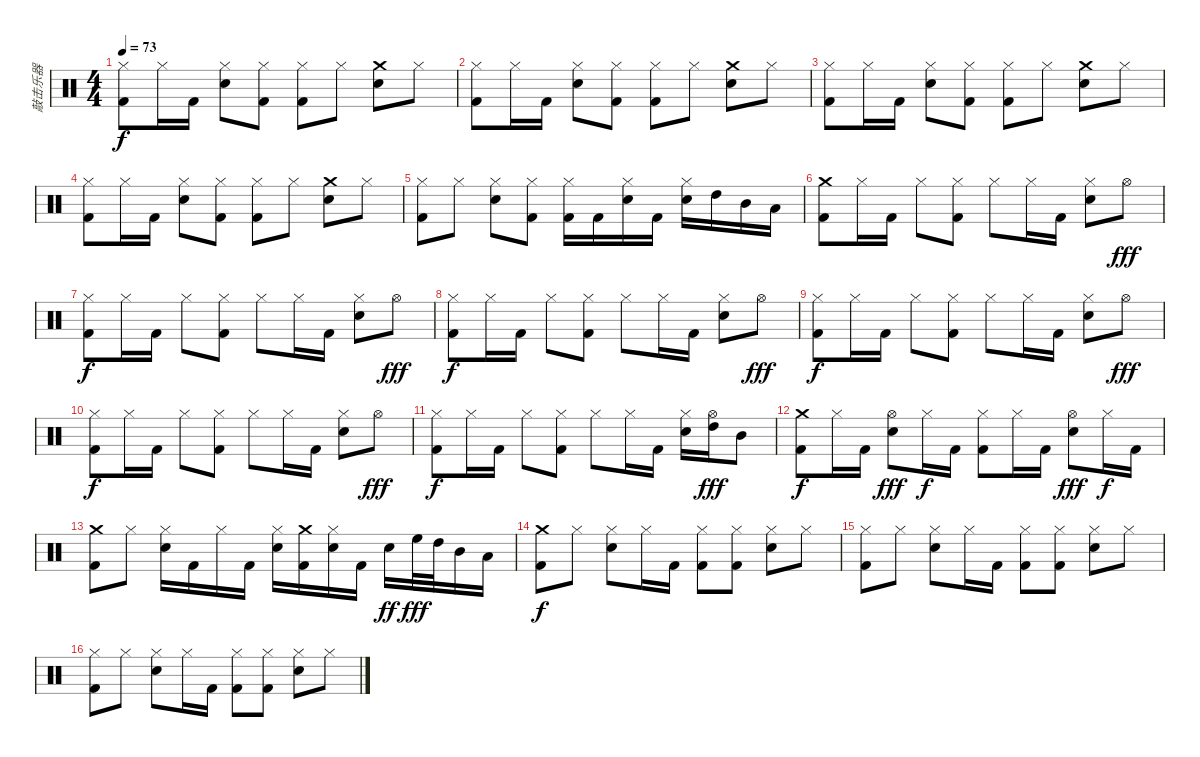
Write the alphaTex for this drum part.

\track ("敲击乐器" "敲击乐器") {instrument percussion}
\staff {score}
\articulation defaults
\ts (4 4)
\tempo 73
\clef neutral
\ks c
("Hi-Hat (closed)" "Kick (hit) 2").8{dy f} "Hi-Hat (closed)".16 "Kick (hit) 2".16 ("Hi-Hat (closed)" "Electric Snare (hit)").8 ("Hi-Hat (closed)" "Kick (hit) 2").8 ("Hi-Hat (closed)" "Kick (hit) 2").8 "Hi-Hat (closed)".8 ("Crash medium (hit)" "Electric Snare (hit)").8 "Hi-Hat (closed)".8 |
("Hi-Hat (closed)" "Kick (hit) 2").8 "Hi-Hat (closed)".16 "Kick (hit) 2".16 ("Hi-Hat (closed)" "Electric Snare (hit)").8 ("Hi-Hat (closed)" "Kick (hit) 2").8 ("Hi-Hat (closed)" "Kick (hit) 2").8 "Hi-Hat (closed)".8 ("Crash medium (hit)" "Electric Snare (hit)").8 "Hi-Hat (closed)".8 |
("Hi-Hat (closed)" "Kick (hit) 2").8 "Hi-Hat (closed)".16 "Kick (hit) 2".16 ("Hi-Hat (closed)" "Electric Snare (hit)").8 ("Hi-Hat (closed)" "Kick (hit) 2").8 ("Hi-Hat (closed)" "Kick (hit) 2").8 "Hi-Hat (closed)".8 ("Crash medium (hit)" "Electric Snare (hit)").8 "Hi-Hat (closed)".8 |
("Hi-Hat (closed)" "Kick (hit) 2").8 "Hi-Hat (closed)".16 "Kick (hit) 2".16 ("Hi-Hat (closed)" "Electric Snare (hit)").8 ("Hi-Hat (closed)" "Kick (hit) 2").8 ("Hi-Hat (closed)" "Kick (hit) 2").8 "Hi-Hat (closed)".8 ("Crash medium (hit)" "Electric Snare (hit)").8 "Hi-Hat (closed)".8 |
("Hi-Hat (closed)" "Kick (hit) 2").8 "Hi-Hat (closed)".8 ("Hi-Hat (closed)" "Electric Snare (hit)").8 ("Hi-Hat (closed)" "Kick (hit) 2").8 ("Hi-Hat (closed)" "Kick (hit) 2").16 "Kick (hit) 2".16 ("Hi-Hat (closed)" "Electric Snare (hit)").16 "Kick (hit) 2".16 ("Hi-Hat (closed)" "Electric Snare (hit)").16 "High Tom (hit)".16 "Mid Tom (hit)".16 "Low Tom (hit)".16 |
("Crash medium (hit)" "Kick (hit) 2").8 "Hi-Hat (closed)".16 "Kick (hit) 2".16 "Hi-Hat (closed)".8 ("Hi-Hat (closed)" "Kick (hit) 2").8 "Hi-Hat (closed)".8 "Hi-Hat (closed)".16 "Kick (hit) 2".16 ("Hi-Hat (closed)" "Electric Snare (hit)").8 "Hi-Hat (open)".8{dy fff} |
("Hi-Hat (closed)" "Kick (hit) 2").8{dy f} "Hi-Hat (closed)".16 "Kick (hit) 2".16 "Hi-Hat (closed)".8 ("Hi-Hat (closed)" "Kick (hit) 2").8 "Hi-Hat (closed)".8 "Hi-Hat (closed)".16 "Kick (hit) 2".16 ("Hi-Hat (closed)" "Electric Snare (hit)").8 "Hi-Hat (open)".8{dy fff} |
("Hi-Hat (closed)" "Kick (hit) 2").8{dy f} "Hi-Hat (closed)".16 "Kick (hit) 2".16 "Hi-Hat (closed)".8 ("Hi-Hat (closed)" "Kick (hit) 2").8 "Hi-Hat (closed)".8 "Hi-Hat (closed)".16 "Kick (hit) 2".16 ("Hi-Hat (closed)" "Electric Snare (hit)").8 "Hi-Hat (open)".8{dy fff} |
("Hi-Hat (closed)" "Kick (hit) 2").8{dy f} "Hi-Hat (closed)".16 "Kick (hit) 2".16 "Hi-Hat (closed)".8 ("Hi-Hat (closed)" "Kick (hit) 2").8 "Hi-Hat (closed)".8 "Hi-Hat (closed)".16 "Kick (hit) 2".16 ("Hi-Hat (closed)" "Electric Snare (hit)").8 "Hi-Hat (open)".8{dy fff} |
("Hi-Hat (closed)" "Kick (hit) 2").8{dy f} "Hi-Hat (closed)".16 "Kick (hit) 2".16 "Hi-Hat (closed)".8 ("Hi-Hat (closed)" "Kick (hit) 2").8 "Hi-Hat (closed)".8 "Hi-Hat (closed)".16 "Kick (hit) 2".16 ("Hi-Hat (closed)" "Electric Snare (hit)").8 "Hi-Hat (open)".8{dy fff} |
("Hi-Hat (closed)" "Kick (hit) 2").8{dy f} "Hi-Hat (closed)".16 "Kick (hit) 2".16 "Hi-Hat (closed)".8 ("Hi-Hat (closed)" "Kick (hit) 2").8 "Hi-Hat (closed)".8 "Hi-Hat (closed)".16 "Kick (hit) 2".16 ("Hi-Hat (closed)" "Electric Snare (hit)").16 ("Hi-Hat (open)" "High Tom (hit)").16{dy fff} "Mid Tom (hit)".8 |
("Crash medium (hit)" "Kick (hit) 2").8{dy f} "Hi-Hat (closed)".16 "Kick (hit) 2".16 ("Hi-Hat (open)" "Electric Snare (hit)").8{dy fff} "Hi-Hat (closed)".16{dy f} "Kick (hit) 2".16 ("Hi-Hat (closed)" "Kick (hit) 2").8 "Hi-Hat (closed)".16 "Kick (hit) 2".16 ("Hi-Hat (open)" "Electric Snare (hit)").8{dy fff} "Hi-Hat (closed)".16{dy f} "Kick (hit) 2".16 |
("Crash medium (hit)" "Kick (hit) 2").8 "Hi-Hat (closed)".8 ("Hi-Hat (closed)" "Electric Snare (hit)").16 "Kick (hit) 2".16 "Hi-Hat (closed)".16 "Kick (hit) 2".16 ("Hi-Hat (closed)" "Electric Snare (hit)").16 ("Crash medium (hit)" "Kick (hit) 2").16 ("Hi-Hat (closed)" "Electric Snare (hit)").16 "Kick (hit) 2".16 "Electric Snare (hit)".16{dy ff} "High Floor Tom (hit)".32{dy fff} "High Tom (hit)".32 "Mid Tom (hit)".16 "Low Tom (hit)".16 |
("Crash medium (hit)" "Kick (hit) 2").8{dy f} "Hi-Hat (closed)".8 ("Hi-Hat (closed)" "Electric Snare (hit)").8 "Hi-Hat (closed)".16 "Kick (hit) 2".16 ("Hi-Hat (closed)" "Kick (hit) 2").8 ("Hi-Hat (closed)" "Kick (hit) 2").8 ("Hi-Hat (closed)" "Electric Snare (hit)").8 "Hi-Hat (closed)".8 |
("Hi-Hat (closed)" "Kick (hit) 2").8 "Hi-Hat (closed)".8 ("Hi-Hat (closed)" "Electric Snare (hit)").8 "Hi-Hat (closed)".16 "Kick (hit) 2".16 ("Hi-Hat (closed)" "Kick (hit) 2").8 ("Hi-Hat (closed)" "Kick (hit) 2").8 ("Hi-Hat (closed)" "Electric Snare (hit)").8 "Hi-Hat (closed)".8 |
("Hi-Hat (closed)" "Kick (hit) 2").8 "Hi-Hat (closed)".8 ("Hi-Hat (closed)" "Electric Snare (hit)").8 "Hi-Hat (closed)".16 "Kick (hit) 2".16 ("Hi-Hat (closed)" "Kick (hit) 2").8 ("Hi-Hat (closed)" "Kick (hit) 2").8 ("Hi-Hat (closed)" "Electric Snare (hit)").8 "Hi-Hat (closed)".8
